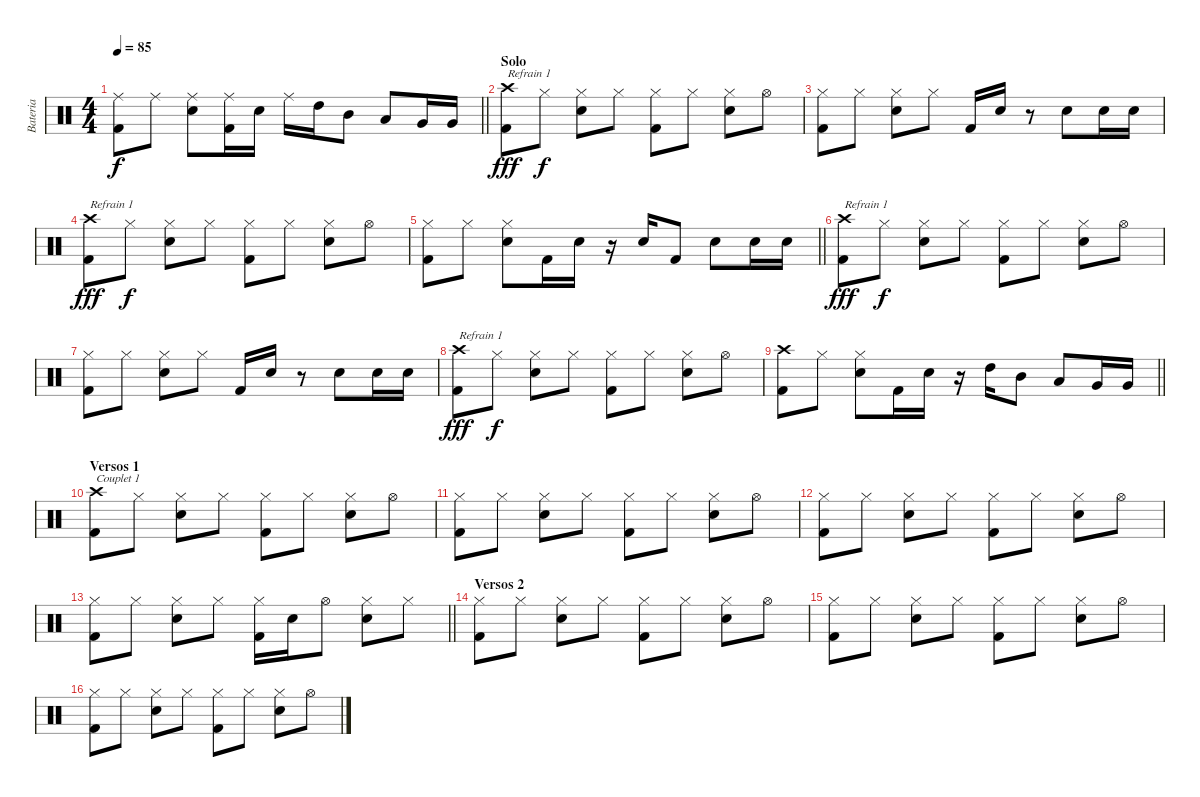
\track ("Bateria" "Bateria") {instrument percussion}
\staff {score}
\articulation defaults
\ts (4 4)
\tempo 85
\clef neutral
\barLineRight lightlight
\ks c
("Ride (middle)" "Kick (hit) 2").8{dy f} "Ride (middle)".8 ("Ride (middle)" "Snare (hit) 2").8 ("Ride (middle)" "Kick (hit) 2").16 "Snare (hit) 2".16 "Ride (middle)".16 "High Tom (hit)".16 "Mid Tom (hit)".8 "Low Tom (hit)".8 "Very Low Tom (hit)".16 "Very Low Tom (hit)".16 |
\section ("" "Solo")
("Crash high (hit)" "Kick (hit) 2").8{txt "Refrain 1" dy fff} "Hi-Hat (closed)".8{dy f} ("Hi-Hat (closed)" "Snare (hit) 2").8 "Hi-Hat (closed)".8 ("Hi-Hat (closed)" "Kick (hit) 2").8 "Hi-Hat (closed)".8 ("Hi-Hat (closed)" "Snare (hit) 2").8 "Hi-Hat (open)".8 |
("Hi-Hat (closed)" "Kick (hit) 2").8 "Hi-Hat (closed)".8 ("Hi-Hat (closed)" "Snare (hit) 2").8 "Hi-Hat (closed)".8 "Kick (hit) 2".16 "Snare (hit) 2".16 r.8 "Snare (hit) 2".8 "Snare (hit) 2".16 "Snare (hit) 2".16 |
("Crash high (hit)" "Kick (hit) 2").8{txt "Refrain 1" dy fff} "Hi-Hat (closed)".8{dy f} ("Hi-Hat (closed)" "Snare (hit) 2").8 "Hi-Hat (closed)".8 ("Hi-Hat (closed)" "Kick (hit) 2").8 "Hi-Hat (closed)".8 ("Hi-Hat (closed)" "Snare (hit) 2").8 "Hi-Hat (open)".8 |
\barLineRight lightlight
("Hi-Hat (closed)" "Kick (hit) 2").8 "Hi-Hat (closed)".8 ("Hi-Hat (closed)" "Snare (hit) 2").8 "Kick (hit) 2".16 "Snare (hit) 2".16 r.16 "Snare (hit) 2".16 "Kick (hit) 2".8 "Snare (hit) 2".8 "Snare (hit) 2".16 "Snare (hit) 2".16 |
("Crash high (hit)" "Kick (hit) 2").8{txt "Refrain 1" dy fff} "Hi-Hat (closed)".8{dy f} ("Hi-Hat (closed)" "Snare (hit) 2").8 "Hi-Hat (closed)".8 ("Hi-Hat (closed)" "Kick (hit) 2").8 "Hi-Hat (closed)".8 ("Hi-Hat (closed)" "Snare (hit) 2").8 "Hi-Hat (open)".8 |
("Hi-Hat (closed)" "Kick (hit) 2").8 "Hi-Hat (closed)".8 ("Hi-Hat (closed)" "Snare (hit) 2").8 "Hi-Hat (closed)".8 "Kick (hit) 2".16 "Snare (hit) 2".16 r.8 "Snare (hit) 2".8 "Snare (hit) 2".16 "Snare (hit) 2".16 |
("Crash high (hit)" "Kick (hit) 2").8{txt "Refrain 1" dy fff} "Hi-Hat (closed)".8{dy f} ("Hi-Hat (closed)" "Snare (hit) 2").8 "Hi-Hat (closed)".8 ("Hi-Hat (closed)" "Kick (hit) 2").8 "Hi-Hat (closed)".8 ("Hi-Hat (closed)" "Snare (hit) 2").8 "Hi-Hat (open)".8 |
\barLineRight lightlight
("Crash high (hit)" "Kick (hit) 2").8 "Hi-Hat (closed)".8 ("Hi-Hat (closed)" "Snare (hit) 2").8 "Kick (hit) 2".16 "Snare (hit) 2".16 r.16 "High Tom (hit)".16 "Mid Tom (hit)".8 "Low Tom (hit)".8 "Very Low Tom (hit)".16 "Very Low Tom (hit)".16 |
\section ("" "Versos 1")
("Crash high (hit)" "Kick (hit) 2").8{txt "Couplet 1"} "Hi-Hat (closed)".8 ("Hi-Hat (closed)" "Snare (hit) 2").8 "Hi-Hat (closed)".8 ("Hi-Hat (closed)" "Kick (hit) 2").8 "Hi-Hat (closed)".8 ("Hi-Hat (closed)" "Snare (hit) 2").8 "Hi-Hat (open)".8 |
("Hi-Hat (closed)" "Kick (hit) 2").8 "Hi-Hat (closed)".8 ("Hi-Hat (closed)" "Snare (hit) 2").8 "Hi-Hat (closed)".8 ("Hi-Hat (closed)" "Kick (hit) 2").8 "Hi-Hat (closed)".8 ("Hi-Hat (closed)" "Snare (hit) 2").8 "Hi-Hat (open)".8 |
("Hi-Hat (closed)" "Kick (hit) 2").8 "Hi-Hat (closed)".8 ("Hi-Hat (closed)" "Snare (hit) 2").8 "Hi-Hat (closed)".8 ("Hi-Hat (closed)" "Kick (hit) 2").8 "Hi-Hat (closed)".8 ("Hi-Hat (closed)" "Snare (hit) 2").8 "Hi-Hat (open)".8 |
\barLineRight lightlight
("Hi-Hat (closed)" "Kick (hit) 2").8 "Hi-Hat (closed)".8 ("Hi-Hat (closed)" "Snare (hit) 2").8 "Hi-Hat (closed)".8 ("Hi-Hat (closed)" "Kick (hit) 2").16 "Snare (hit) 2".16 "Hi-Hat (open)".8 ("Hi-Hat (closed)" "Snare (hit) 2").8 "Hi-Hat (closed)".8 |
\section ("" "Versos 2")
("Hi-Hat (closed)" "Kick (hit) 2").8 "Hi-Hat (closed)".8 ("Hi-Hat (closed)" "Snare (hit) 2").8 "Hi-Hat (closed)".8 ("Hi-Hat (closed)" "Kick (hit) 2").8 "Hi-Hat (closed)".8 ("Hi-Hat (closed)" "Snare (hit) 2").8 "Hi-Hat (open)".8 |
("Hi-Hat (closed)" "Kick (hit) 2").8 "Hi-Hat (closed)".8 ("Hi-Hat (closed)" "Snare (hit) 2").8 "Hi-Hat (closed)".8 ("Hi-Hat (closed)" "Kick (hit) 2").8 "Hi-Hat (closed)".8 ("Hi-Hat (closed)" "Snare (hit) 2").8 "Hi-Hat (open)".8 |
("Hi-Hat (closed)" "Kick (hit) 2").8 "Hi-Hat (closed)".8 ("Hi-Hat (closed)" "Snare (hit) 2").8 "Hi-Hat (closed)".8 ("Hi-Hat (closed)" "Kick (hit) 2").8 "Hi-Hat (closed)".8 ("Hi-Hat (closed)" "Snare (hit) 2").8 "Hi-Hat (open)".8
